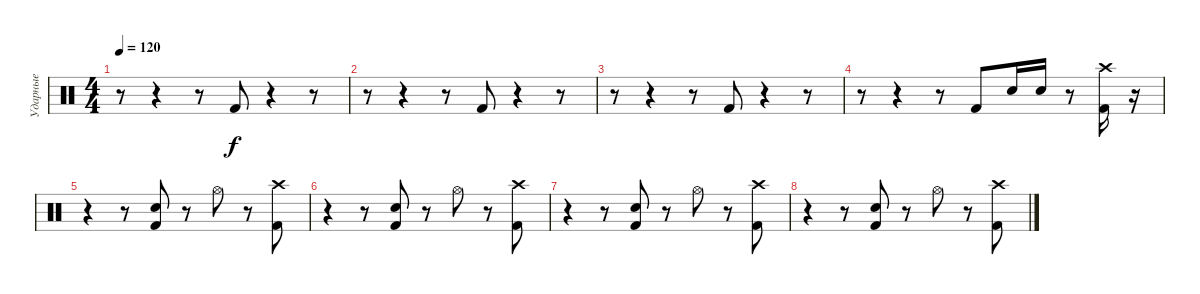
\track ("Ударные" "Ударные") {instrument percussion}
\staff {score}
\articulation defaults
\ts (4 4)
\tempo 120
\clef neutral
\ks c
r.8{dy f} r.4 r.8 "Kick (hit) 2".8 r.4 r.8 |
r.8 r.4 r.8 "Kick (hit) 2".8 r.4 r.8 |
r.8 r.4 r.8 "Kick (hit) 2".8 r.4 r.8 |
r.8 r.4 r.8 "Kick (hit) 2".8 "Electric Snare (hit)".16 "Electric Snare (hit)".16 r.8 ("Crash high (hit)" "Kick (hit) 2").16 r.16 |
r.4 r.8 ("Electric Snare (hit)" "Kick (hit) 2").8 r.8 "Hi-Hat (open)".8 r.8 ("Crash high (hit)" "Kick (hit) 2").8 |
r.4 r.8 ("Electric Snare (hit)" "Kick (hit) 2").8 r.8 "Hi-Hat (open)".8 r.8 ("Crash high (hit)" "Kick (hit) 2").8 |
r.4 r.8 ("Electric Snare (hit)" "Kick (hit) 2").8 r.8 "Hi-Hat (open)".8 r.8 ("Crash high (hit)" "Kick (hit) 2").8 |
r.4 r.8 ("Electric Snare (hit)" "Kick (hit) 2").8 r.8 "Hi-Hat (open)".8 r.8 ("Crash high (hit)" "Kick (hit) 2").8
